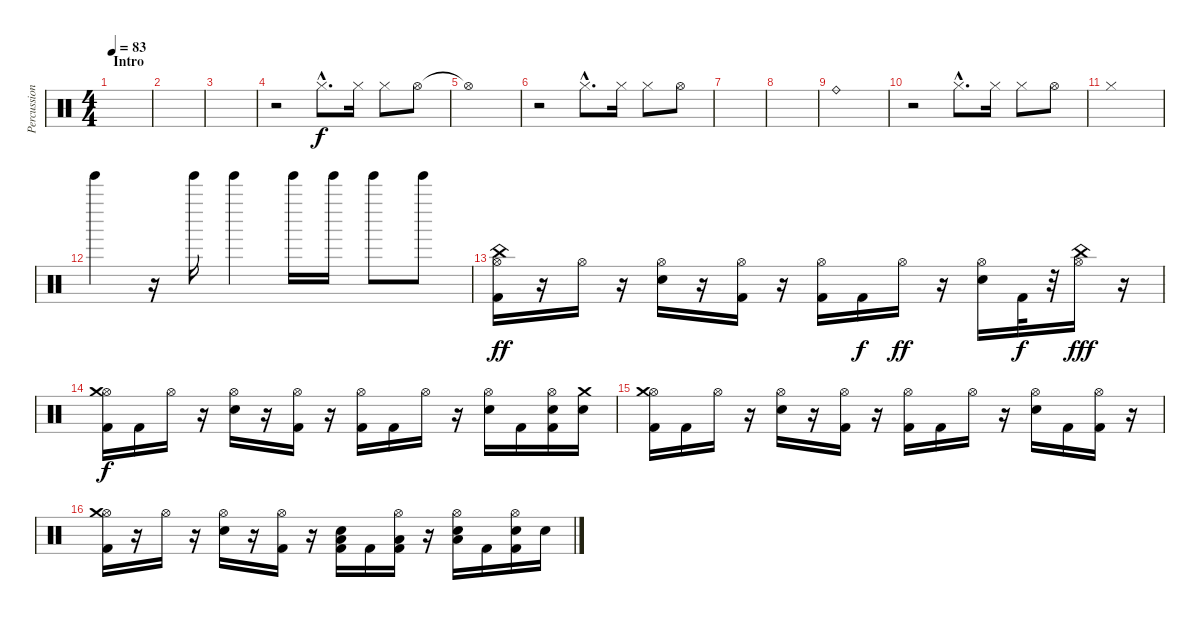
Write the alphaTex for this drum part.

\track ("Percussion" "Percussion") {instrument percussion}
\staff {score}
\articulation defaults
\ts (4 4)
\section ("" "Intro ")
\tempo 83
\clef neutral
\ks c
|
|
|
r.2 "Hi-Hat (closed)"{hac}.8{d} "Hi-Hat (closed)".16 "Hi-Hat (closed)".8 "Hi-Hat (open)".8 |
"Hi-Hat (open)"{t}.1 |
r.2 "Hi-Hat (closed)"{hac}.8{d} "Hi-Hat (closed)".16 "Hi-Hat (closed)".8 "Hi-Hat (open)".8 |
|
|
"Ride (bell)".1 |
r.2 "Hi-Hat (closed)"{hac}.8{d} "Hi-Hat (closed)".16 "Hi-Hat (closed)".8 "Hi-Hat (open)".8 |
"Hi-Hat (closed)".1 |
"Tinkle Bell (hit)".4 r.16 "Tinkle Bell (hit)".16 "Tinkle Bell (hit)".4 "Tinkle Bell (hit)".16 "Tinkle Bell (hit)".16 "Tinkle Bell (hit)".8 "Tinkle Bell (hit)".8 |
("Hi-Hat (open)" "China (hit)" "Kick (hit) 2").16{dy ff} r.16 "Hi-Hat (open)".16 r.16 ("Hi-Hat (open)" "Snare (hit) 2").16 r.16 ("Hi-Hat (open)" "Kick (hit) 2").16 r.16 ("Hi-Hat (open)" "Kick (hit) 2").16 "Kick (hit) 2".16{dy f} "Hi-Hat (open)".16{dy ff} r.16 ("Hi-Hat (open)" "Snare (hit) 2").16 "Kick (hit) 2".32{dy f} r.32 ("China (hit)" "Hi-Hat (open)").16{dy fff} r.16 |
("Hi-Hat (open)" "Crash medium (hit)" "Kick (hit) 2").16{dy f} "Kick (hit) 2".16 "Hi-Hat (open)".16 r.16 ("Hi-Hat (open)" "Snare (hit) 2").16 r.16 ("Hi-Hat (open)" "Kick (hit) 2").16 r.16 ("Hi-Hat (open)" "Kick (hit) 2").16 "Kick (hit) 2".16 "Hi-Hat (open)".16 r.16 ("Hi-Hat (open)" "Snare (hit) 2").16 "Kick (hit) 2".16 ("Hi-Hat (open)" "Snare (hit) 2" "Kick (hit) 2").16 ("Crash medium (hit)" "Snare (hit) 2").16 |
("Hi-Hat (open)" "Crash medium (hit)" "Kick (hit) 2").16 "Kick (hit) 2".16 "Hi-Hat (open)".16 r.16 ("Hi-Hat (open)" "Snare (hit) 2").16 r.16 ("Hi-Hat (open)" "Kick (hit) 2").16 r.16 ("Hi-Hat (open)" "Kick (hit) 2").16 "Kick (hit) 2".16 "Hi-Hat (open)".16 r.16 ("Hi-Hat (open)" "Snare (hit) 2").16 "Kick (hit) 2".16 ("Hi-Hat (open)" "Kick (hit) 2").16 r.16 |
("Hi-Hat (open)" "Crash medium (hit)" "Kick (hit) 2").16 r.16 "Hi-Hat (open)".16 r.16 ("Hi-Hat (open)" "Snare (hit) 2").16 r.16 ("Hi-Hat (open)" "Kick (hit) 2").16 r.16 ("Low Tom (hit)" "Snare (hit) 2" "Kick (hit) 2").16 "Kick (hit) 2".16 ("Hi-Hat (open)" "Low Tom (hit)" "Kick (hit) 2").16 r.16 ("Hi-Hat (open)" "Snare (hit) 2" "Low Tom (hit)").16 "Kick (hit) 2".16 ("Hi-Hat (open)" "Snare (hit) 2" "Kick (hit) 2").16 "Snare (hit) 2".16
